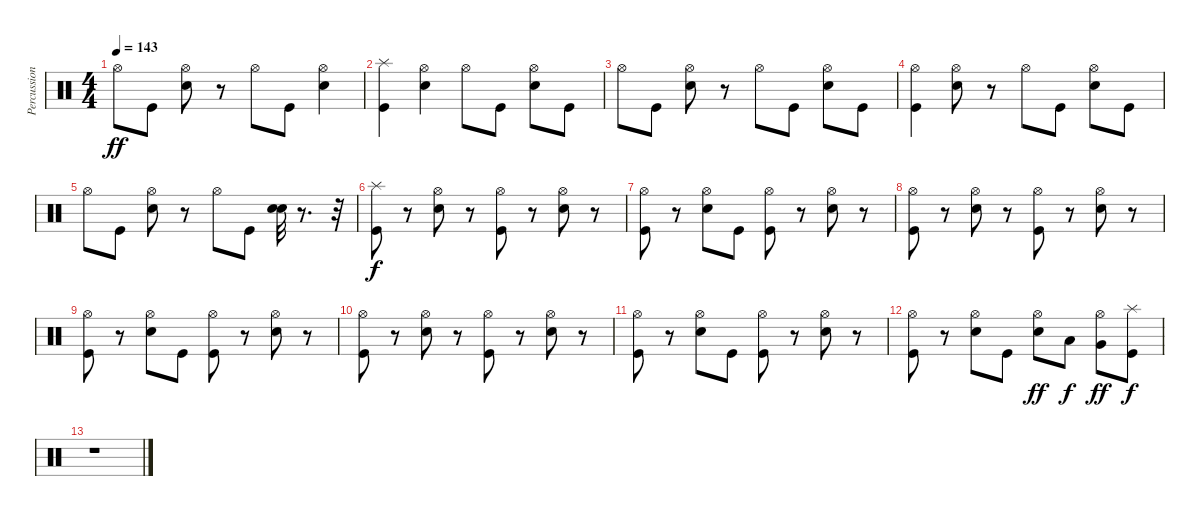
\track ("Percussion" "Percussion") {instrument percussion}
\staff {score}
\articulation defaults
\ts (4 4)
\tempo 143
\clef neutral
\ks c "Hi-Hat (open)".8{dy ff} "Kick (hit)".8
("Hi-Hat (open)" "Snare (hit) 2").8 r.8 "Hi-Hat (open)".8 "Kick (hit)".8 ("Hi-Hat (open)" "Snare (hit) 2").4 |
("Splash (hit)" "Kick (hit)").4 ("Hi-Hat (open)" "Snare (hit) 2").4 "Hi-Hat (open)".8 "Kick (hit)".8 ("Hi-Hat (open)" "Snare (hit) 2").8 "Kick (hit)".8 |
"Hi-Hat (open)".8 "Kick (hit)".8 ("Hi-Hat (open)" "Snare (hit) 2").8 r.8 "Hi-Hat (open)".8 "Kick (hit)".8 ("Hi-Hat (open)" "Snare (hit) 2").8 "Kick (hit)".8 |
("Hi-Hat (open)" "Kick (hit)").4 ("Hi-Hat (open)" "Snare (hit) 2").8 r.8 "Hi-Hat (open)".8 "Kick (hit)".8 ("Hi-Hat (open)" "Snare (hit) 2").8 "Kick (hit)".8 |
"Hi-Hat (open)".8 "Kick (hit)".8 ("Hi-Hat (open)" "Snare (hit) 2").8 r.8 "Hi-Hat (open)".8 "Kick (hit)".8 ("Snare (hit) 2" "Snare (hit) 2").32 r.8{d} r.32 |
("Splash (hit)" "Kick (hit)").8{dy f} r.8 ("Hi-Hat (open)" "Snare (hit) 2").8 r.8 ("Hi-Hat (open)" "Kick (hit)").8 r.8 ("Hi-Hat (open)" "Snare (hit) 2").8 r.8 |
("Hi-Hat (open)" "Kick (hit)").8 r.8 ("Hi-Hat (open)" "Snare (hit) 2").8 "Kick (hit)".8 ("Hi-Hat (open)" "Kick (hit)").8 r.8 ("Hi-Hat (open)" "Snare (hit) 2").8 r.8 |
("Hi-Hat (open)" "Kick (hit)").8 r.8 ("Hi-Hat (open)" "Snare (hit) 2").8 r.8 ("Hi-Hat (open)" "Kick (hit)").8 r.8 ("Hi-Hat (open)" "Snare (hit) 2").8 r.8 |
("Hi-Hat (open)" "Kick (hit)").8 r.8 ("Hi-Hat (open)" "Snare (hit) 2").8 "Kick (hit)".8 ("Hi-Hat (open)" "Kick (hit)").8 r.8 ("Hi-Hat (open)" "Snare (hit) 2").8 r.8 |
("Hi-Hat (open)" "Kick (hit)").8 r.8 ("Hi-Hat (open)" "Snare (hit) 2").8 r.8 ("Hi-Hat (open)" "Kick (hit)").8 r.8 ("Hi-Hat (open)" "Snare (hit) 2").8 r.8 |
("Hi-Hat (open)" "Kick (hit)").8 r.8 ("Hi-Hat (open)" "Snare (hit) 2").8 "Kick (hit)".8 ("Hi-Hat (open)" "Kick (hit)").8 r.8 ("Hi-Hat (open)" "Snare (hit) 2").8 r.8 |
("Hi-Hat (open)" "Kick (hit)").8 r.8 ("Hi-Hat (open)" "Snare (hit) 2").8 "Kick (hit)".8 ("Hi-Hat (open)" "Snare (hit) 2").8{dy ff} "Low Tom (hit)".8{dy f} ("Hi-Hat (open)" "Very Low Tom (hit)").8{dy ff} ("Splash (hit)" "Kick (hit)").8{dy f} |
r.1
